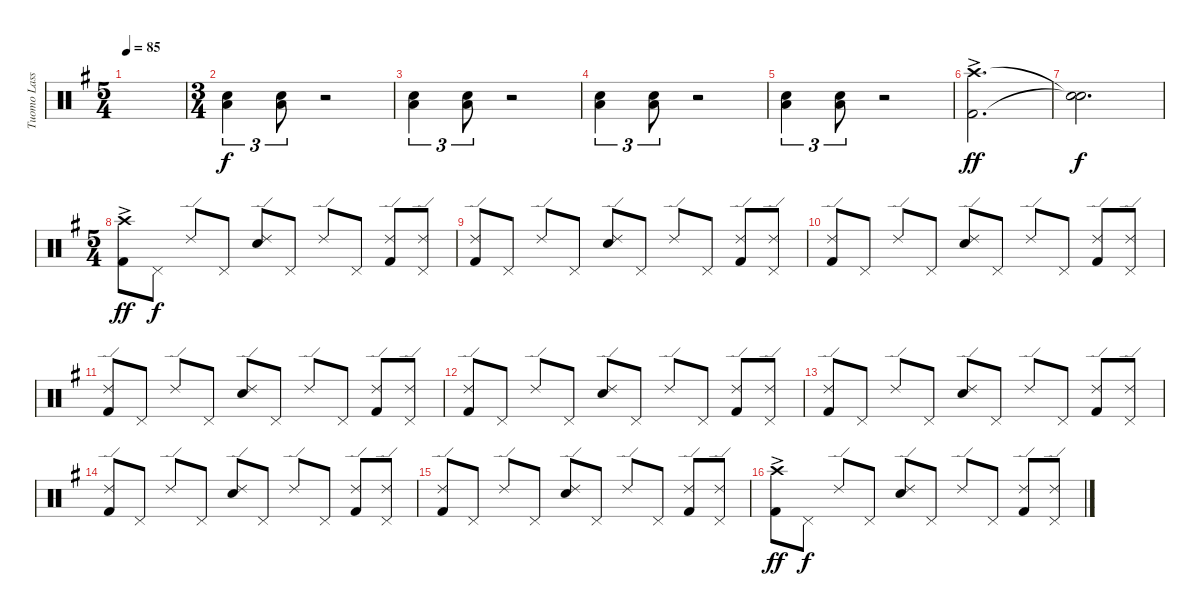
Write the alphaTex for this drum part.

\track ("Tuomo Lassila" "Tuomo Lass") {instrument percussion}
\staff {score}
\articulation defaults
\ts (5 4)
\tempo 85
\clef neutral
\ks g
|
\ts (3 4)
("Low Tom (hit)" "Electric Snare (hit)").4{tu (3 2)} ("Low Tom (hit)" "Electric Snare (hit)").8{tu (3 2)} r.2 |
("Low Tom (hit)" "Electric Snare (hit)").4{tu (3 2)} ("Low Tom (hit)" "Electric Snare (hit)").8{tu (3 2)} r.2 |
("Low Tom (hit)" "Electric Snare (hit)").4{tu (3 2)} ("Low Tom (hit)" "Electric Snare (hit)").8{tu (3 2)} r.2 |
("Low Tom (hit)" "Electric Snare (hit)").4{tu (3 2)} ("Low Tom (hit)" "Electric Snare (hit)").8{tu (3 2)} r.2 |
("Crash high (hit)"{ac} "Kick (hit) 2"{ac}).2{d dy ff} |
("Snare (hit)"{t} "Snare (hit)"{t}).2{d dy f} |
\ts (5 4)
("Crash high (hit)"{ac} "Kick (hit) 2"{ac}).8{dy ff} "Pedal Hi-Hat (hit)".8{dy f} "Ride (edge) 2".8 "Pedal Hi-Hat (hit)".8 ("Ride (edge) 2" "Electric Snare (hit)").8 "Pedal Hi-Hat (hit)".8 "Ride (edge) 2".8 "Pedal Hi-Hat (hit)".8 ("Ride (edge) 2" "Kick (hit) 2").8 ("Ride (edge) 2" "Pedal Hi-Hat (hit)").8 |
("Ride (edge) 2" "Kick (hit) 2").8 "Pedal Hi-Hat (hit)".8 "Ride (edge) 2".8 "Pedal Hi-Hat (hit)".8 ("Ride (edge) 2" "Electric Snare (hit)").8 "Pedal Hi-Hat (hit)".8 "Ride (edge) 2".8 "Pedal Hi-Hat (hit)".8 ("Ride (edge) 2" "Kick (hit) 2").8 ("Ride (edge) 2" "Pedal Hi-Hat (hit)").8 |
("Ride (edge) 2" "Kick (hit) 2").8 "Pedal Hi-Hat (hit)".8 "Ride (edge) 2".8 "Pedal Hi-Hat (hit)".8 ("Ride (edge) 2" "Electric Snare (hit)").8 "Pedal Hi-Hat (hit)".8 "Ride (edge) 2".8 "Pedal Hi-Hat (hit)".8 ("Ride (edge) 2" "Kick (hit) 2").8 ("Ride (edge) 2" "Pedal Hi-Hat (hit)").8 |
("Ride (edge) 2" "Kick (hit) 2").8 "Pedal Hi-Hat (hit)".8 "Ride (edge) 2".8 "Pedal Hi-Hat (hit)".8 ("Ride (edge) 2" "Electric Snare (hit)").8 "Pedal Hi-Hat (hit)".8 "Ride (edge) 2".8 "Pedal Hi-Hat (hit)".8 ("Ride (edge) 2" "Kick (hit) 2").8 ("Ride (edge) 2" "Pedal Hi-Hat (hit)").8 |
("Ride (edge) 2" "Kick (hit) 2").8 "Pedal Hi-Hat (hit)".8 "Ride (edge) 2".8 "Pedal Hi-Hat (hit)".8 ("Ride (edge) 2" "Electric Snare (hit)").8 "Pedal Hi-Hat (hit)".8 "Ride (edge) 2".8 "Pedal Hi-Hat (hit)".8 ("Ride (edge) 2" "Kick (hit) 2").8 ("Ride (edge) 2" "Pedal Hi-Hat (hit)").8 |
("Ride (edge) 2" "Kick (hit) 2").8 "Pedal Hi-Hat (hit)".8 "Ride (edge) 2".8 "Pedal Hi-Hat (hit)".8 ("Ride (edge) 2" "Electric Snare (hit)").8 "Pedal Hi-Hat (hit)".8 "Ride (edge) 2".8 "Pedal Hi-Hat (hit)".8 ("Ride (edge) 2" "Kick (hit) 2").8 ("Ride (edge) 2" "Pedal Hi-Hat (hit)").8 |
("Ride (edge) 2" "Kick (hit) 2").8 "Pedal Hi-Hat (hit)".8 "Ride (edge) 2".8 "Pedal Hi-Hat (hit)".8 ("Ride (edge) 2" "Electric Snare (hit)").8 "Pedal Hi-Hat (hit)".8 "Ride (edge) 2".8 "Pedal Hi-Hat (hit)".8 ("Ride (edge) 2" "Kick (hit) 2").8 ("Ride (edge) 2" "Pedal Hi-Hat (hit)").8 |
("Ride (edge) 2" "Kick (hit) 2").8 "Pedal Hi-Hat (hit)".8 "Ride (edge) 2".8 "Pedal Hi-Hat (hit)".8 ("Ride (edge) 2" "Electric Snare (hit)").8 "Pedal Hi-Hat (hit)".8 "Ride (edge) 2".8 "Pedal Hi-Hat (hit)".8 ("Ride (edge) 2" "Kick (hit) 2").8 ("Ride (edge) 2" "Pedal Hi-Hat (hit)").8 |
("Crash high (hit)"{ac} "Kick (hit) 2"{ac}).8{dy ff} "Pedal Hi-Hat (hit)".8{dy f} "Ride (edge) 2".8 "Pedal Hi-Hat (hit)".8 ("Ride (edge) 2" "Electric Snare (hit)").8 "Pedal Hi-Hat (hit)".8 "Ride (edge) 2".8 "Pedal Hi-Hat (hit)".8 ("Ride (edge) 2" "Kick (hit) 2").8 ("Ride (edge) 2" "Pedal Hi-Hat (hit)").8
